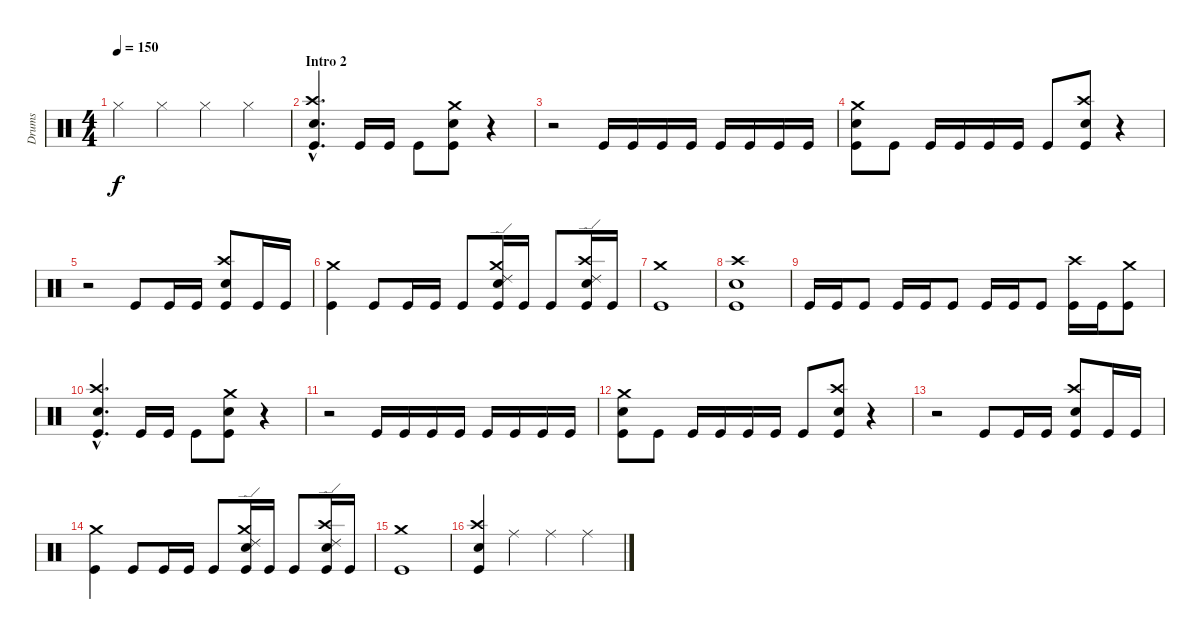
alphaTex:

\track ("Drums" "Drums") {instrument percussion}
\staff {score}
\articulation defaults
\ts (4 4)
\tempo 150
\clef neutral
\ks c "Hi-Hat (closed)".4{dy f} "Hi-Hat (closed)".4 "Hi-Hat (closed)".4 "Hi-Hat (closed)".4
|
\section ("" "Intro 2")
("Electric Snare (hit)"{hac} "Crash high (hit)"{hac} "Kick (hit)"{hac}).4{d} "Kick (hit)".16 "Kick (hit)".16 "Kick (hit)".8 ("Electric Snare (hit)" "Crash medium (hit)" "Kick (hit)").8 r.4 |
r.2 "Kick (hit)".16 "Kick (hit)".16 "Kick (hit)".16 "Kick (hit)".16 "Kick (hit)".16 "Kick (hit)".16 "Kick (hit)".16 "Kick (hit)".16 |
("Electric Snare (hit)" "Crash medium (hit)" "Kick (hit)").8 "Kick (hit)".8 "Kick (hit)".16 "Kick (hit)".16 "Kick (hit)".16 "Kick (hit)".16 "Kick (hit)".8 ("Electric Snare (hit)" "Crash high (hit)" "Kick (hit)").8 r.4 |
r.2 "Kick (hit)".8 "Kick (hit)".16 "Kick (hit)".16 ("Crash high (hit)" "Electric Snare (hit)" "Kick (hit)").8 "Kick (hit)".16 "Kick (hit)".16 |
("Crash medium (hit)" "Kick (hit)").4 "Kick (hit)".8 "Kick (hit)".16 "Kick (hit)".16 "Kick (hit)".8 ("Crash medium (hit)" "Ride (edge) 2" "Electric Snare (hit)" "Kick (hit)").16 "Kick (hit)".16 "Kick (hit)".8 ("Crash high (hit)" "Ride (edge) 2" "Electric Snare (hit)" "Kick (hit)").16 "Kick (hit)".16 |
("Crash medium (hit)" "Kick (hit)").1 |
("Crash high (hit)" "Electric Snare (hit)" "Kick (hit)").1 |
"Kick (hit)".16 "Kick (hit)".16 "Kick (hit)".8 "Kick (hit)".16 "Kick (hit)".16 "Kick (hit)".8 "Kick (hit)".16 "Kick (hit)".16 "Kick (hit)".8 ("Crash high (hit)" "Kick (hit)").16 "Kick (hit)".16 ("Crash medium (hit)" "Kick (hit)").8 |
("Electric Snare (hit)"{hac} "Crash high (hit)"{hac} "Kick (hit)"{hac}).4{d} "Kick (hit)".16 "Kick (hit)".16 "Kick (hit)".8 ("Electric Snare (hit)" "Crash medium (hit)" "Kick (hit)").8 r.4 |
r.2 "Kick (hit)".16 "Kick (hit)".16 "Kick (hit)".16 "Kick (hit)".16 "Kick (hit)".16 "Kick (hit)".16 "Kick (hit)".16 "Kick (hit)".16 |
("Electric Snare (hit)" "Crash medium (hit)" "Kick (hit)").8 "Kick (hit)".8 "Kick (hit)".16 "Kick (hit)".16 "Kick (hit)".16 "Kick (hit)".16 "Kick (hit)".8 ("Electric Snare (hit)" "Crash high (hit)" "Kick (hit)").8 r.4 |
r.2 "Kick (hit)".8 "Kick (hit)".16 "Kick (hit)".16 ("Crash high (hit)" "Electric Snare (hit)" "Kick (hit)").8 "Kick (hit)".16 "Kick (hit)".16 |
("Crash medium (hit)" "Kick (hit)").4 "Kick (hit)".8 "Kick (hit)".16 "Kick (hit)".16 "Kick (hit)".8 ("Crash medium (hit)" "Ride (edge) 2" "Electric Snare (hit)" "Kick (hit)").16 "Kick (hit)".16 "Kick (hit)".8 ("Crash high (hit)" "Ride (edge) 2" "Electric Snare (hit)" "Kick (hit)").16 "Kick (hit)".16 |
("Crash medium (hit)" "Kick (hit)").1 |
("Crash high (hit)" "Electric Snare (hit)" "Kick (hit)").4 "Ride (middle)".4 "Ride (middle)".4 "Ride (middle)".4
